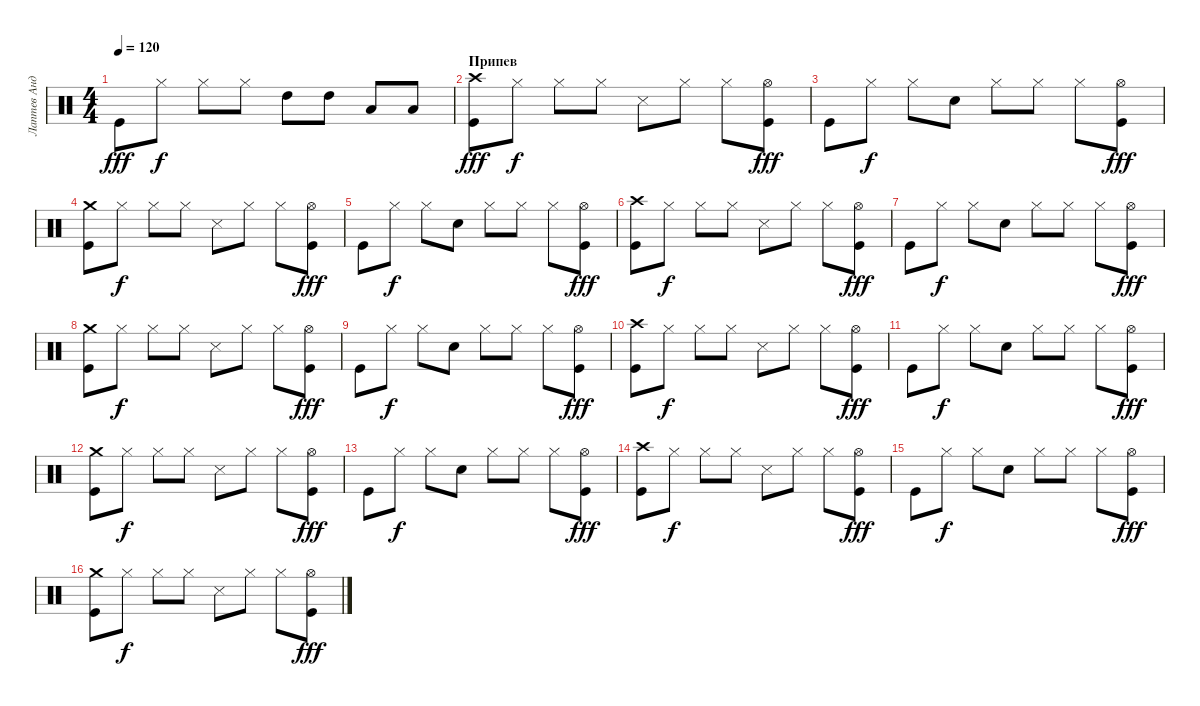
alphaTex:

\track ("Лаптев Андрей" "Лаптев Анд") {instrument percussion}
\staff {score}
\articulation defaults
\ts (4 4)
\tempo 120
\clef neutral
\ks c "Kick (hit)".8{dy fff} "Hi-Hat (closed)".8{dy f} "Hi-Hat (closed)".8 "Hi-Hat (closed)".8 "High Tom (hit)".8 "High Tom (hit)".8 "Low Tom (hit)".8 "Low Tom (hit)".8
|
\section ("" "Припев")
("Kick (hit)" "Crash high (hit)").8{dy fff} "Hi-Hat (closed)".8{dy f} "Hi-Hat (closed)".8 "Hi-Hat (closed)".8 "Snare (side stick) 3".8 "Hi-Hat (closed)".8 "Hi-Hat (closed)".8 ("Hi-Hat (open)" "Kick (hit)").8{dy fff} |
"Kick (hit)".8 "Hi-Hat (closed)".8{dy f} "Hi-Hat (closed)".8 "Snare (hit) 2".8 "Hi-Hat (closed)".8 "Hi-Hat (closed)".8 "Hi-Hat (closed)".8 ("Kick (hit)" "Hi-Hat (open)").8{dy fff} |
("Kick (hit)" "Crash medium (hit)").8 "Hi-Hat (closed)".8{dy f} "Hi-Hat (closed)".8 "Hi-Hat (closed)".8 "Snare (side stick) 3".8 "Hi-Hat (closed)".8 "Hi-Hat (closed)".8 ("Kick (hit)" "Hi-Hat (open)").8{dy fff} |
"Kick (hit)".8 "Hi-Hat (closed)".8{dy f} "Hi-Hat (closed)".8 "Snare (hit) 2".8 "Hi-Hat (closed)".8 "Hi-Hat (closed)".8 "Hi-Hat (closed)".8 ("Kick (hit)" "Hi-Hat (open)").8{dy fff} |
("Kick (hit)" "Crash high (hit)").8 "Hi-Hat (closed)".8{dy f} "Hi-Hat (closed)".8 "Hi-Hat (closed)".8 "Snare (side stick) 3".8 "Hi-Hat (closed)".8 "Hi-Hat (closed)".8 ("Hi-Hat (open)" "Kick (hit)").8{dy fff} |
"Kick (hit)".8 "Hi-Hat (closed)".8{dy f} "Hi-Hat (closed)".8 "Snare (hit) 2".8 "Hi-Hat (closed)".8 "Hi-Hat (closed)".8 "Hi-Hat (closed)".8 ("Kick (hit)" "Hi-Hat (open)").8{dy fff} |
("Kick (hit)" "Crash medium (hit)").8 "Hi-Hat (closed)".8{dy f} "Hi-Hat (closed)".8 "Hi-Hat (closed)".8 "Snare (side stick) 3".8 "Hi-Hat (closed)".8 "Hi-Hat (closed)".8 ("Kick (hit)" "Hi-Hat (open)").8{dy fff} |
"Kick (hit)".8 "Hi-Hat (closed)".8{dy f} "Hi-Hat (closed)".8 "Snare (hit) 2".8 "Hi-Hat (closed)".8 "Hi-Hat (closed)".8 "Hi-Hat (closed)".8 ("Kick (hit)" "Hi-Hat (open)").8{dy fff} |
("Kick (hit)" "Crash high (hit)").8 "Hi-Hat (closed)".8{dy f} "Hi-Hat (closed)".8 "Hi-Hat (closed)".8 "Snare (side stick) 3".8 "Hi-Hat (closed)".8 "Hi-Hat (closed)".8 ("Hi-Hat (open)" "Kick (hit)").8{dy fff} |
"Kick (hit)".8 "Hi-Hat (closed)".8{dy f} "Hi-Hat (closed)".8 "Snare (hit) 2".8 "Hi-Hat (closed)".8 "Hi-Hat (closed)".8 "Hi-Hat (closed)".8 ("Kick (hit)" "Hi-Hat (open)").8{dy fff} |
("Kick (hit)" "Crash medium (hit)").8 "Hi-Hat (closed)".8{dy f} "Hi-Hat (closed)".8 "Hi-Hat (closed)".8 "Snare (side stick) 3".8 "Hi-Hat (closed)".8 "Hi-Hat (closed)".8 ("Kick (hit)" "Hi-Hat (open)").8{dy fff} |
"Kick (hit)".8 "Hi-Hat (closed)".8{dy f} "Hi-Hat (closed)".8 "Snare (hit) 2".8 "Hi-Hat (closed)".8 "Hi-Hat (closed)".8 "Hi-Hat (closed)".8 ("Kick (hit)" "Hi-Hat (open)").8{dy fff} |
("Kick (hit)" "Crash high (hit)").8 "Hi-Hat (closed)".8{dy f} "Hi-Hat (closed)".8 "Hi-Hat (closed)".8 "Snare (side stick) 3".8 "Hi-Hat (closed)".8 "Hi-Hat (closed)".8 ("Hi-Hat (open)" "Kick (hit)").8{dy fff} |
"Kick (hit)".8 "Hi-Hat (closed)".8{dy f} "Hi-Hat (closed)".8 "Snare (hit) 2".8 "Hi-Hat (closed)".8 "Hi-Hat (closed)".8 "Hi-Hat (closed)".8 ("Kick (hit)" "Hi-Hat (open)").8{dy fff} |
("Kick (hit)" "Crash medium (hit)").8 "Hi-Hat (closed)".8{dy f} "Hi-Hat (closed)".8 "Hi-Hat (closed)".8 "Snare (side stick) 3".8 "Hi-Hat (closed)".8 "Hi-Hat (closed)".8 ("Kick (hit)" "Hi-Hat (open)").8{dy fff}
